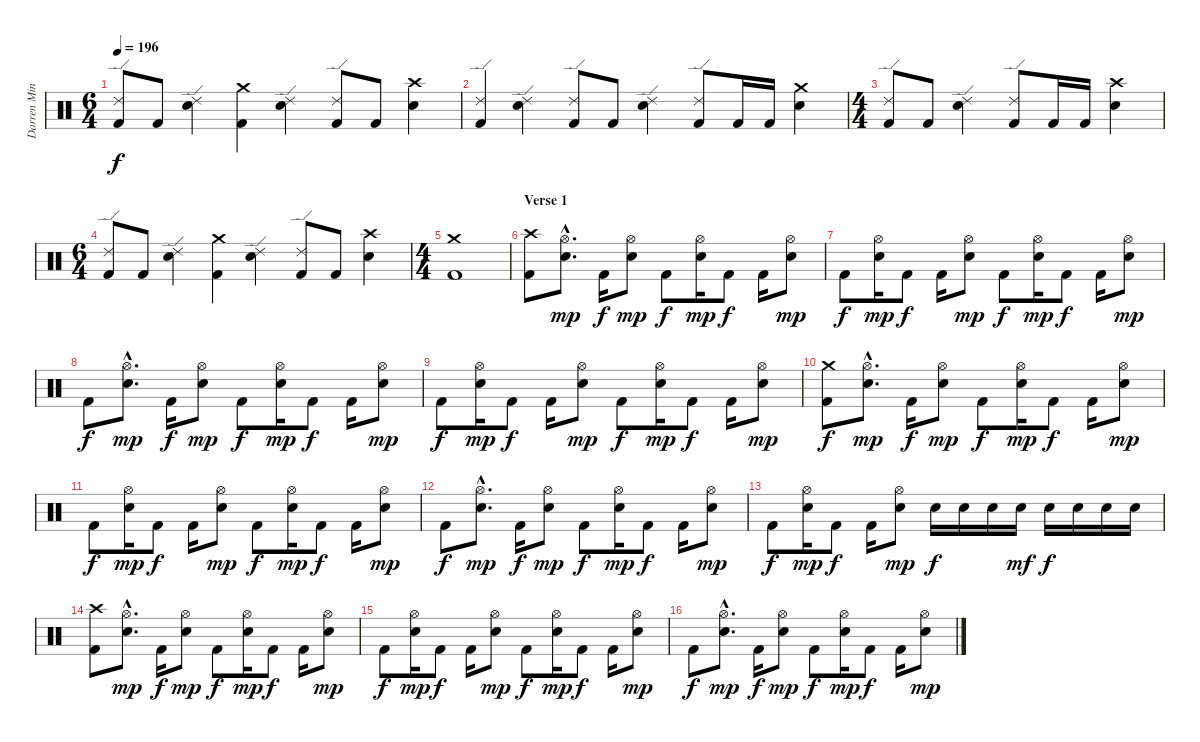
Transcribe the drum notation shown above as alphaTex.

\track ("Darren Minter" "Darren Min") {instrument percussion}
\staff {score}
\articulation defaults
\ts (6 4)
\tempo 196
\clef neutral
\ks c
("Kick (hit) 2" "Ride (edge) 2").8{dy f} "Kick (hit) 2".8 ("Ride (edge) 2" "Snare (hit) 2").4 ("Kick (hit) 2" "Crash medium (hit)").4 ("Ride (edge) 2" "Snare (hit) 2").4 ("Kick (hit) 2" "Ride (edge) 2").8 "Kick (hit) 2".8 ("Crash high (hit)" "Snare (hit) 2").4 |
("Kick (hit) 2" "Ride (edge) 2").4 ("Ride (edge) 2" "Snare (hit) 2").4 ("Kick (hit) 2" "Ride (edge) 2").8 "Kick (hit) 2".8 ("Ride (edge) 2" "Snare (hit) 2").4 ("Kick (hit) 2" "Ride (edge) 2").8 "Kick (hit) 2".16 "Kick (hit) 2".16 ("Crash medium (hit)" "Snare (hit) 2").4 |
\ts (4 4)
("Kick (hit) 2" "Ride (edge) 2").8 "Kick (hit) 2".8 ("Ride (edge) 2" "Snare (hit) 2").4 ("Kick (hit) 2" "Ride (edge) 2").8 "Kick (hit) 2".16 "Kick (hit) 2".16 ("Crash high (hit)" "Snare (hit) 2").4 |
\ts (6 4)
("Kick (hit) 2" "Ride (edge) 2").8 "Kick (hit) 2".8 ("Ride (edge) 2" "Snare (hit) 2").4 ("Kick (hit) 2" "Crash medium (hit)").4 ("Ride (edge) 2" "Snare (hit) 2").4 ("Kick (hit) 2" "Ride (edge) 2").8 "Kick (hit) 2".8 ("Crash high (hit)" "Snare (hit) 2").4 |
\ts (4 4)
("Kick (hit) 2" "Crash medium (hit)").1 |
\section ("" "Verse 1")
("Kick (hit) 2" "Crash high (hit)").8 ("Hi-Hat (open)"{hac} "Snare (hit) 2"{hac}).8{d dy mp} "Kick (hit) 2".16{dy f} ("Hi-Hat (open)" "Snare (hit) 2").8{dy mp} "Kick (hit) 2".8{dy f} ("Hi-Hat (open)" "Snare (hit) 2").16{dy mp} "Kick (hit) 2".8{dy f} "Kick (hit) 2".16 ("Hi-Hat (open)" "Snare (hit) 2").8{dy mp} |
"Kick (hit) 2".8{dy f} ("Hi-Hat (open)" "Snare (hit) 2").16{dy mp} "Kick (hit) 2".8{dy f} "Kick (hit) 2".16 ("Hi-Hat (open)" "Snare (hit) 2").8{dy mp} "Kick (hit) 2".8{dy f} ("Hi-Hat (open)" "Snare (hit) 2").16{dy mp} "Kick (hit) 2".8{dy f} "Kick (hit) 2".16 ("Hi-Hat (open)" "Snare (hit) 2").8{dy mp} |
"Kick (hit) 2".8{dy f} ("Hi-Hat (open)"{hac} "Snare (hit) 2"{hac}).8{d dy mp} "Kick (hit) 2".16{dy f} ("Hi-Hat (open)" "Snare (hit) 2").8{dy mp} "Kick (hit) 2".8{dy f} ("Hi-Hat (open)" "Snare (hit) 2").16{dy mp} "Kick (hit) 2".8{dy f} "Kick (hit) 2".16 ("Hi-Hat (open)" "Snare (hit) 2").8{dy mp} |
"Kick (hit) 2".8{dy f} ("Hi-Hat (open)" "Snare (hit) 2").16{dy mp} "Kick (hit) 2".8{dy f} "Kick (hit) 2".16 ("Hi-Hat (open)" "Snare (hit) 2").8{dy mp} "Kick (hit) 2".8{dy f} ("Hi-Hat (open)" "Snare (hit) 2").16{dy mp} "Kick (hit) 2".8{dy f} "Kick (hit) 2".16 ("Hi-Hat (open)" "Snare (hit) 2").8{dy mp} |
("Kick (hit) 2" "Crash medium (hit)").8{dy f} ("Hi-Hat (open)"{hac} "Snare (hit) 2"{hac}).8{d dy mp} "Kick (hit) 2".16{dy f} ("Hi-Hat (open)" "Snare (hit) 2").8{dy mp} "Kick (hit) 2".8{dy f} ("Hi-Hat (open)" "Snare (hit) 2").16{dy mp} "Kick (hit) 2".8{dy f} "Kick (hit) 2".16 ("Hi-Hat (open)" "Snare (hit) 2").8{dy mp} |
"Kick (hit) 2".8{dy f} ("Hi-Hat (open)" "Snare (hit) 2").16{dy mp} "Kick (hit) 2".8{dy f} "Kick (hit) 2".16 ("Hi-Hat (open)" "Snare (hit) 2").8{dy mp} "Kick (hit) 2".8{dy f} ("Hi-Hat (open)" "Snare (hit) 2").16{dy mp} "Kick (hit) 2".8{dy f} "Kick (hit) 2".16 ("Hi-Hat (open)" "Snare (hit) 2").8{dy mp} |
"Kick (hit) 2".8{dy f} ("Hi-Hat (open)"{hac} "Snare (hit) 2"{hac}).8{d dy mp} "Kick (hit) 2".16{dy f} ("Hi-Hat (open)" "Snare (hit) 2").8{dy mp} "Kick (hit) 2".8{dy f} ("Hi-Hat (open)" "Snare (hit) 2").16{dy mp} "Kick (hit) 2".8{dy f} "Kick (hit) 2".16 ("Hi-Hat (open)" "Snare (hit) 2").8{dy mp} |
"Kick (hit) 2".8{dy f} ("Hi-Hat (open)" "Snare (hit) 2").16{dy mp} "Kick (hit) 2".8{dy f} "Kick (hit) 2".16 ("Hi-Hat (open)" "Snare (hit) 2").8{dy mp} "Snare (hit) 2".16{dy f} "Snare (hit) 2".16 "Snare (hit) 2".16 "Snare (hit) 2".16{dy mf} "Snare (hit) 2".16{dy f} "Snare (hit) 2".16 "Snare (hit) 2".16 "Snare (hit) 2".16 |
("Kick (hit) 2" "Crash high (hit)").8 ("Hi-Hat (open)"{hac} "Snare (hit) 2"{hac}).8{d dy mp} "Kick (hit) 2".16{dy f} ("Hi-Hat (open)" "Snare (hit) 2").8{dy mp} "Kick (hit) 2".8{dy f} ("Hi-Hat (open)" "Snare (hit) 2").16{dy mp} "Kick (hit) 2".8{dy f} "Kick (hit) 2".16 ("Hi-Hat (open)" "Snare (hit) 2").8{dy mp} |
"Kick (hit) 2".8{dy f} ("Hi-Hat (open)" "Snare (hit) 2").16{dy mp} "Kick (hit) 2".8{dy f} "Kick (hit) 2".16 ("Hi-Hat (open)" "Snare (hit) 2").8{dy mp} "Kick (hit) 2".8{dy f} ("Hi-Hat (open)" "Snare (hit) 2").16{dy mp} "Kick (hit) 2".8{dy f} "Kick (hit) 2".16 ("Hi-Hat (open)" "Snare (hit) 2").8{dy mp} |
"Kick (hit) 2".8{dy f} ("Hi-Hat (open)"{hac} "Snare (hit) 2"{hac}).8{d dy mp} "Kick (hit) 2".16{dy f} ("Hi-Hat (open)" "Snare (hit) 2").8{dy mp} "Kick (hit) 2".8{dy f} ("Hi-Hat (open)" "Snare (hit) 2").16{dy mp} "Kick (hit) 2".8{dy f} "Kick (hit) 2".16 ("Hi-Hat (open)" "Snare (hit) 2").8{dy mp}
